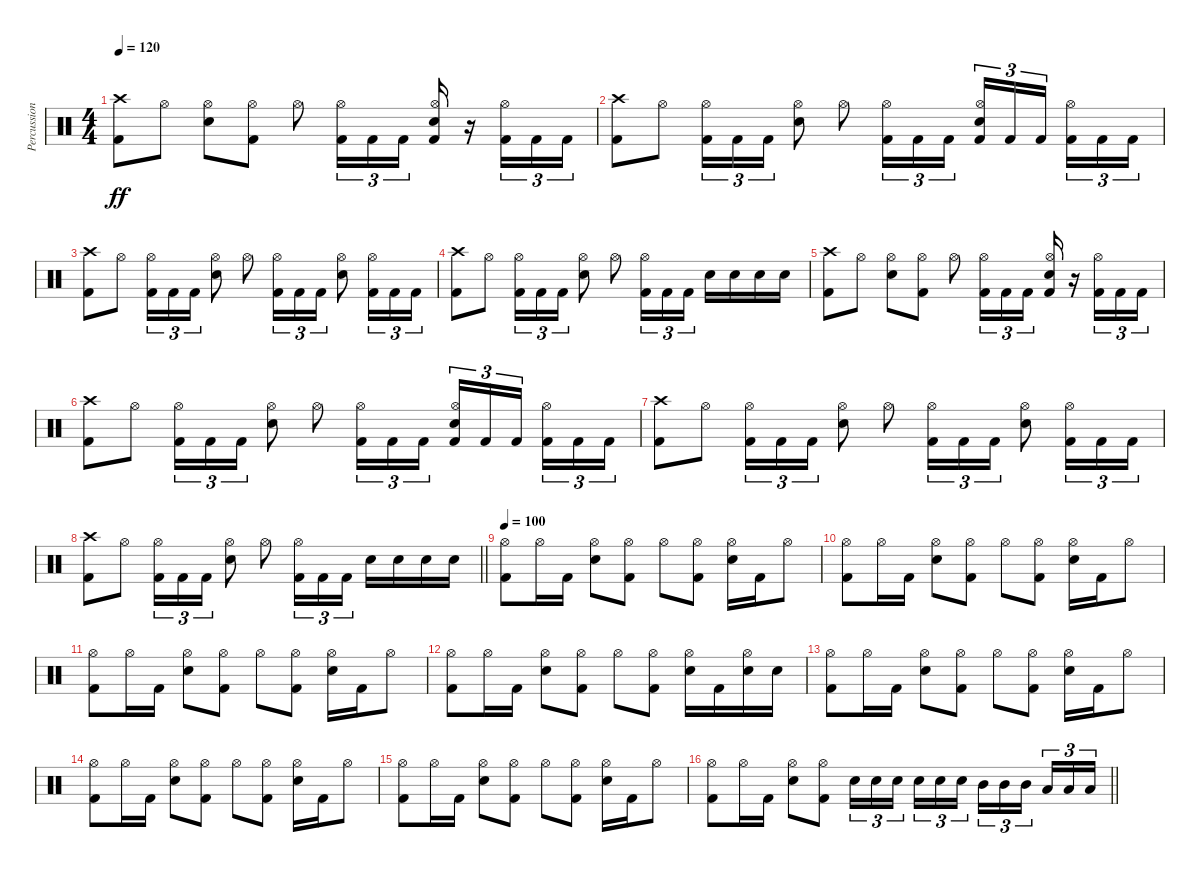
\track ("Percussion" "Percussion") {instrument percussion}
\staff {score}
\articulation defaults
\ts (4 4)
\tempo 120
\clef neutral
\ks c
("Crash high (hit)" "Kick (hit) 2").8{dy ff} "Hi-Hat (open)".8 ("Hi-Hat (open)" "Electric Snare (hit)").8 ("Hi-Hat (open)" "Kick (hit) 2").8 "Hi-Hat (open)".8 ("Hi-Hat (open)" "Kick (hit) 2").16{tu (3 2)} "Kick (hit) 2".16{tu (3 2)} "Kick (hit) 2".16{tu (3 2)} ("Hi-Hat (open)" "Electric Snare (hit)" "Kick (hit) 2").16 r.16 ("Hi-Hat (open)" "Kick (hit) 2").16{tu (3 2)} "Kick (hit) 2".16{tu (3 2)} "Kick (hit) 2".16{tu (3 2)} |
("Crash high (hit)" "Kick (hit) 2").8 "Hi-Hat (open)".8 ("Hi-Hat (open)" "Kick (hit) 2").16{tu (3 2)} "Kick (hit) 2".16{tu (3 2)} "Kick (hit) 2".16{tu (3 2)} ("Hi-Hat (open)" "Electric Snare (hit)").8 "Hi-Hat (open)".8 ("Hi-Hat (open)" "Kick (hit) 2").16{tu (3 2)} "Kick (hit) 2".16{tu (3 2)} "Kick (hit) 2".16{tu (3 2)} ("Hi-Hat (open)" "Electric Snare (hit)" "Kick (hit) 2").16{tu (3 2)} "Kick (hit) 2".16{tu (3 2)} "Kick (hit) 2".16{tu (3 2) beam splitsecondary} ("Hi-Hat (open)" "Kick (hit) 2").16{tu (3 2)} "Kick (hit) 2".16{tu (3 2)} "Kick (hit) 2".16{tu (3 2)} |
("Crash high (hit)" "Kick (hit) 2").8 "Hi-Hat (open)".8 ("Hi-Hat (open)" "Kick (hit) 2").16{tu (3 2)} "Kick (hit) 2".16{tu (3 2)} "Kick (hit) 2".16{tu (3 2)} ("Hi-Hat (open)" "Electric Snare (hit)").8 "Hi-Hat (open)".8 ("Hi-Hat (open)" "Kick (hit) 2").16{tu (3 2)} "Kick (hit) 2".16{tu (3 2)} "Kick (hit) 2".16{tu (3 2)} ("Hi-Hat (open)" "Electric Snare (hit)").8 ("Hi-Hat (open)" "Kick (hit) 2").16{tu (3 2)} "Kick (hit) 2".16{tu (3 2)} "Kick (hit) 2".16{tu (3 2)} |
("Crash high (hit)" "Kick (hit) 2").8 "Hi-Hat (open)".8 ("Hi-Hat (open)" "Kick (hit) 2").16{tu (3 2)} "Kick (hit) 2".16{tu (3 2)} "Kick (hit) 2".16{tu (3 2)} ("Hi-Hat (open)" "Electric Snare (hit)").8 "Hi-Hat (open)".8 ("Hi-Hat (open)" "Kick (hit) 2").16{tu (3 2)} "Kick (hit) 2".16{tu (3 2)} "Kick (hit) 2".16{tu (3 2)} "Electric Snare (hit)".16 "Electric Snare (hit)".16 "Electric Snare (hit)".16 "Electric Snare (hit)".16 |
("Crash high (hit)" "Kick (hit) 2").8 "Hi-Hat (open)".8 ("Hi-Hat (open)" "Electric Snare (hit)").8 ("Hi-Hat (open)" "Kick (hit) 2").8 "Hi-Hat (open)".8 ("Hi-Hat (open)" "Kick (hit) 2").16{tu (3 2)} "Kick (hit) 2".16{tu (3 2)} "Kick (hit) 2".16{tu (3 2)} ("Hi-Hat (open)" "Electric Snare (hit)" "Kick (hit) 2").16 r.16 ("Hi-Hat (open)" "Kick (hit) 2").16{tu (3 2)} "Kick (hit) 2".16{tu (3 2)} "Kick (hit) 2".16{tu (3 2)} |
("Crash high (hit)" "Kick (hit) 2").8 "Hi-Hat (open)".8 ("Hi-Hat (open)" "Kick (hit) 2").16{tu (3 2)} "Kick (hit) 2".16{tu (3 2)} "Kick (hit) 2".16{tu (3 2)} ("Hi-Hat (open)" "Electric Snare (hit)").8 "Hi-Hat (open)".8 ("Hi-Hat (open)" "Kick (hit) 2").16{tu (3 2)} "Kick (hit) 2".16{tu (3 2)} "Kick (hit) 2".16{tu (3 2)} ("Hi-Hat (open)" "Electric Snare (hit)" "Kick (hit) 2").16{tu (3 2)} "Kick (hit) 2".16{tu (3 2)} "Kick (hit) 2".16{tu (3 2) beam splitsecondary} ("Hi-Hat (open)" "Kick (hit) 2").16{tu (3 2)} "Kick (hit) 2".16{tu (3 2)} "Kick (hit) 2".16{tu (3 2)} |
("Crash high (hit)" "Kick (hit) 2").8 "Hi-Hat (open)".8 ("Hi-Hat (open)" "Kick (hit) 2").16{tu (3 2)} "Kick (hit) 2".16{tu (3 2)} "Kick (hit) 2".16{tu (3 2)} ("Hi-Hat (open)" "Electric Snare (hit)").8 "Hi-Hat (open)".8 ("Hi-Hat (open)" "Kick (hit) 2").16{tu (3 2)} "Kick (hit) 2".16{tu (3 2)} "Kick (hit) 2".16{tu (3 2)} ("Hi-Hat (open)" "Electric Snare (hit)").8 ("Hi-Hat (open)" "Kick (hit) 2").16{tu (3 2)} "Kick (hit) 2".16{tu (3 2)} "Kick (hit) 2".16{tu (3 2)} |
\barLineRight lightlight
("Crash high (hit)" "Kick (hit) 2").8 "Hi-Hat (open)".8 ("Hi-Hat (open)" "Kick (hit) 2").16{tu (3 2)} "Kick (hit) 2".16{tu (3 2)} "Kick (hit) 2".16{tu (3 2)} ("Hi-Hat (open)" "Electric Snare (hit)").8 "Hi-Hat (open)".8 ("Hi-Hat (open)" "Kick (hit) 2").16{tu (3 2)} "Kick (hit) 2".16{tu (3 2)} "Kick (hit) 2".16{tu (3 2)} "Electric Snare (hit)".16 "Electric Snare (hit)".16 "Electric Snare (hit)".16 "Electric Snare (hit)".16 |
\tempo 100
("Hi-Hat (open)" "Kick (hit) 2").8 "Hi-Hat (open)".16 "Kick (hit) 2".16 ("Hi-Hat (open)" "Electric Snare (hit)").8 ("Hi-Hat (open)" "Kick (hit) 2").8 "Hi-Hat (open)".8 ("Hi-Hat (open)" "Kick (hit) 2").8 ("Hi-Hat (open)" "Electric Snare (hit)").16 "Kick (hit) 2".16 "Hi-Hat (open)".8 |
("Hi-Hat (open)" "Kick (hit) 2").8 "Hi-Hat (open)".16 "Kick (hit) 2".16 ("Hi-Hat (open)" "Electric Snare (hit)").8 ("Hi-Hat (open)" "Kick (hit) 2").8 "Hi-Hat (open)".8 ("Hi-Hat (open)" "Kick (hit) 2").8 ("Hi-Hat (open)" "Electric Snare (hit)").16 "Kick (hit) 2".16 "Hi-Hat (open)".8 |
("Hi-Hat (open)" "Kick (hit) 2").8 "Hi-Hat (open)".16 "Kick (hit) 2".16 ("Hi-Hat (open)" "Electric Snare (hit)").8 ("Hi-Hat (open)" "Kick (hit) 2").8 "Hi-Hat (open)".8 ("Hi-Hat (open)" "Kick (hit) 2").8 ("Hi-Hat (open)" "Electric Snare (hit)").16 "Kick (hit) 2".16 "Hi-Hat (open)".8 |
("Hi-Hat (open)" "Kick (hit) 2").8 "Hi-Hat (open)".16 "Kick (hit) 2".16 ("Hi-Hat (open)" "Electric Snare (hit)").8 ("Hi-Hat (open)" "Kick (hit) 2").8 "Hi-Hat (open)".8 ("Hi-Hat (open)" "Kick (hit) 2").8 ("Hi-Hat (open)" "Electric Snare (hit)").16 "Kick (hit) 2".16 ("Hi-Hat (open)" "Electric Snare (hit)").16 "Electric Snare (hit)".16 |
("Hi-Hat (open)" "Kick (hit) 2").8 "Hi-Hat (open)".16 "Kick (hit) 2".16 ("Hi-Hat (open)" "Electric Snare (hit)").8 ("Hi-Hat (open)" "Kick (hit) 2").8 "Hi-Hat (open)".8 ("Hi-Hat (open)" "Kick (hit) 2").8 ("Hi-Hat (open)" "Electric Snare (hit)").16 "Kick (hit) 2".16 "Hi-Hat (open)".8 |
("Hi-Hat (open)" "Kick (hit) 2").8 "Hi-Hat (open)".16 "Kick (hit) 2".16 ("Hi-Hat (open)" "Electric Snare (hit)").8 ("Hi-Hat (open)" "Kick (hit) 2").8 "Hi-Hat (open)".8 ("Hi-Hat (open)" "Kick (hit) 2").8 ("Hi-Hat (open)" "Electric Snare (hit)").16 "Kick (hit) 2".16 "Hi-Hat (open)".8 |
("Hi-Hat (open)" "Kick (hit) 2").8 "Hi-Hat (open)".16 "Kick (hit) 2".16 ("Hi-Hat (open)" "Electric Snare (hit)").8 ("Hi-Hat (open)" "Kick (hit) 2").8 "Hi-Hat (open)".8 ("Hi-Hat (open)" "Kick (hit) 2").8 ("Hi-Hat (open)" "Electric Snare (hit)").16 "Kick (hit) 2".16 "Hi-Hat (open)".8 |
\barLineRight lightlight
("Hi-Hat (open)" "Kick (hit) 2").8 "Hi-Hat (open)".16 "Kick (hit) 2".16 ("Hi-Hat (open)" "Electric Snare (hit)").8 ("Hi-Hat (open)" "Kick (hit) 2").8 "Electric Snare (hit)".16{tu (3 2)} "Electric Snare (hit)".16{tu (3 2)} "Electric Snare (hit)".16{tu (3 2) beam splitsecondary} "Electric Snare (hit)".16{tu (3 2)} "Electric Snare (hit)".16{tu (3 2)} "Electric Snare (hit)".16{tu (3 2)} "Mid Tom (hit)".16{tu (3 2)} "Mid Tom (hit)".16{tu (3 2)} "Mid Tom (hit)".16{tu (3 2) beam splitsecondary} "Low Tom (hit)".16{tu (3 2)} "Low Tom (hit)".16{tu (3 2)} "Low Tom (hit)".16{tu (3 2)}
